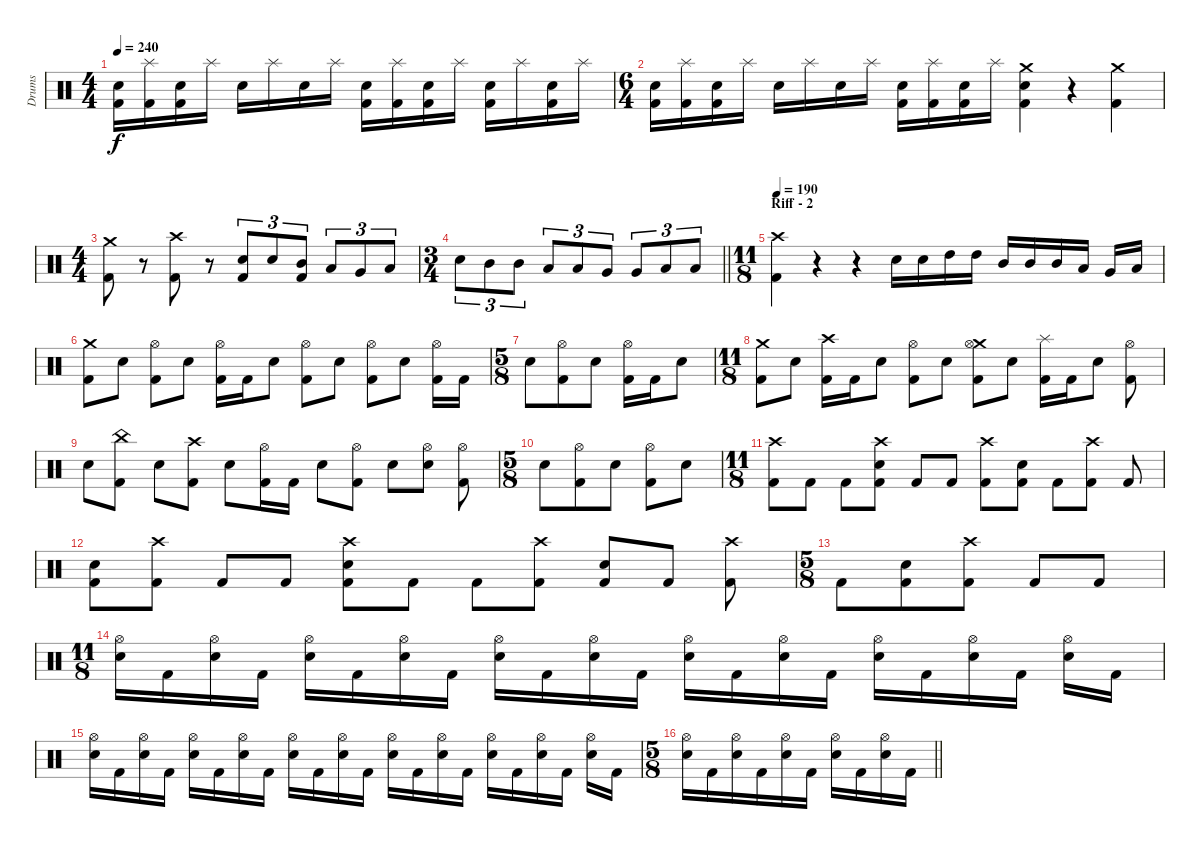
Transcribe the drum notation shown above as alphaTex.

\track ("Drums" "Drums") {instrument percussion}
\staff {score}
\articulation defaults
\ts (4 4)
\tempo 240
\clef neutral
\ks c
("Electric Snare (hit)" "Kick (hit) 2").16{dy f} ("Splash (hit)" "Kick (hit) 2").16 ("Electric Snare (hit)" "Kick (hit) 2").16 "Splash (hit)".16 "Electric Snare (hit)".16 "Splash (hit)".16 "Electric Snare (hit)".16 "Splash (hit)".16 ("Electric Snare (hit)" "Kick (hit) 2").16 ("Splash (hit)" "Kick (hit) 2").16 ("Electric Snare (hit)" "Kick (hit) 2").16 "Splash (hit)".16 ("Electric Snare (hit)" "Kick (hit) 2").16 "Splash (hit)".16 ("Electric Snare (hit)" "Kick (hit) 2").16 "Splash (hit)".16 |
\ts (6 4)
("Electric Snare (hit)" "Kick (hit) 2").16 ("Splash (hit)" "Kick (hit) 2").16 ("Electric Snare (hit)" "Kick (hit) 2").16 "Splash (hit)".16 "Electric Snare (hit)".16 "Splash (hit)".16 "Electric Snare (hit)".16 "Splash (hit)".16 ("Electric Snare (hit)" "Kick (hit) 2").16 ("Splash (hit)" "Kick (hit) 2").16 ("Electric Snare (hit)" "Kick (hit) 2").16 "Splash (hit)".16 ("Crash medium (hit)" "Electric Snare (hit)" "Kick (hit) 2").4 r.4 ("Crash medium (hit)" "Kick (hit) 2").4 |
\ts (4 4)
("Crash medium (hit)" "Kick (hit) 2").8 r.8 ("Crash high (hit)" "Kick (hit) 2").8 r.8 ("Electric Snare (hit)" "Kick (hit) 2").8{tu (3 2)} "Electric Snare (hit)".8{tu (3 2)} ("Mid Tom (hit)" "Kick (hit) 2").8{tu (3 2)} "Low Tom (hit)".8{tu (3 2)} "Very Low Tom (hit)".8{tu (3 2)} "Low Floor Tom (hit)".8{tu (3 2)} |
\ts (3 4)
\barLineRight lightlight "Electric Snare (hit)".8{tu (3 2)} "Mid Tom (hit)".8{tu (3 2)} "Mid Tom (hit)".8{tu (3 2)} "Low Tom (hit)".8{tu (3 2)} "Low Tom (hit)".8{tu (3 2)} "Very Low Tom (hit)".8{tu (3 2)} "Very Low Tom (hit)".8{tu (3 2)} "Low Floor Tom (hit)".8{tu (3 2)} "Low Floor Tom (hit)".8{tu (3 2)}
|
\ts (11 8)
\section ("" "Riff - 2")
\tempo 190
("Crash high (hit)" "Kick (hit) 2").4 r.4 r.4 "Electric Snare (hit)".16 "Electric Snare (hit)".16 "High Tom (hit)".16 "High Tom (hit)".16 "Mid Tom (hit)".16 "Mid Tom (hit)".16 "Mid Tom (hit)".16 "Low Tom (hit)".16 "Very Low Tom (hit)".16 "Low Floor Tom (hit)".16 |
("Crash medium (hit)" "Kick (hit) 2").8 "Electric Snare (hit)".8 ("Hi-Hat (open)" "Kick (hit) 2").8 "Electric Snare (hit)".8 ("Hi-Hat (open)" "Kick (hit) 2").16 "Kick (hit) 2".16 "Electric Snare (hit)".8 ("Hi-Hat (open)" "Kick (hit) 2").8 "Electric Snare (hit)".8 ("Hi-Hat (open)" "Kick (hit) 2").8 "Electric Snare (hit)".8 ("Hi-Hat (open)" "Kick (hit) 2").16 "Kick (hit) 2".16 |
\ts (5 8)
"Electric Snare (hit)".8 ("Hi-Hat (open)" "Kick (hit) 2").8 "Electric Snare (hit)".8 ("Hi-Hat (open)" "Kick (hit) 2").16 "Kick (hit) 2".16 "Electric Snare (hit)".8 |
\ts (11 8)
("Crash medium (hit)" "Kick (hit) 2").8 "Electric Snare (hit)".8 ("Crash high (hit)" "Kick (hit) 2").16 "Kick (hit) 2".16 "Electric Snare (hit)".8 ("Hi-Hat (open)" "Kick (hit) 2").8 "Electric Snare (hit)".8 ("Crash medium (hit)" "Hi-Hat (open)" "Kick (hit) 2").8 "Electric Snare (hit)".8 ("Splash (hit)" "Kick (hit) 2").16 "Kick (hit) 2".16 "Electric Snare (hit)".8 ("Hi-Hat (open)" "Kick (hit) 2").8 |
"Electric Snare (hit)".8 ("China (hit)" "Kick (hit) 2").8 "Electric Snare (hit)".8 ("Crash high (hit)" "Kick (hit) 2").8 "Electric Snare (hit)".8 ("Hi-Hat (open)" "Kick (hit) 2").16 "Kick (hit) 2".16 "Electric Snare (hit)".8 ("Hi-Hat (open)" "Kick (hit) 2").8 "Electric Snare (hit)".8 ("Hi-Hat (open)" "Electric Snare (hit)").8 ("Hi-Hat (open)" "Kick (hit) 2").8 |
\ts (5 8)
"Electric Snare (hit)".8 ("Hi-Hat (open)" "Kick (hit) 2").8 "Electric Snare (hit)".8 ("Hi-Hat (open)" "Kick (hit) 2").8 "Electric Snare (hit)".8 |
\ts (11 8)
("Crash high (hit)" "Kick (hit) 2").8 "Kick (hit) 2".8 "Kick (hit) 2".8 ("Crash high (hit)" "Electric Snare (hit)" "Kick (hit) 2").8 "Kick (hit) 2".8 "Kick (hit) 2".8 ("Crash high (hit)" "Kick (hit) 2").8 ("Electric Snare (hit)" "Kick (hit) 2").8 "Kick (hit) 2".8 ("Crash high (hit)" "Kick (hit) 2").8 "Kick (hit) 2".8 |
("Electric Snare (hit)" "Kick (hit) 2").8 ("Crash high (hit)" "Kick (hit) 2").8 "Kick (hit) 2".8 "Kick (hit) 2".8 ("Crash high (hit)" "Electric Snare (hit)" "Kick (hit) 2").8 "Kick (hit) 2".8 "Kick (hit) 2".8 ("Crash high (hit)" "Kick (hit) 2").8 ("Electric Snare (hit)" "Kick (hit) 2").8 "Kick (hit) 2".8 ("Crash high (hit)" "Kick (hit) 2").8 |
\ts (5 8)
"Kick (hit) 2".8 ("Electric Snare (hit)" "Kick (hit) 2").8 ("Crash high (hit)" "Kick (hit) 2").8 "Kick (hit) 2".8 "Kick (hit) 2".8 |
\ts (11 8)
("Hi-Hat (open)" "Electric Snare (hit)").16 "Kick (hit) 2".16 ("Hi-Hat (open)" "Electric Snare (hit)").16 "Kick (hit) 2".16 ("Hi-Hat (open)" "Electric Snare (hit)").16 "Kick (hit) 2".16 ("Hi-Hat (open)" "Electric Snare (hit)").16 "Kick (hit) 2".16 ("Hi-Hat (open)" "Electric Snare (hit)").16 "Kick (hit) 2".16 ("Hi-Hat (open)" "Electric Snare (hit)").16 "Kick (hit) 2".16 ("Hi-Hat (open)" "Electric Snare (hit)").16 "Kick (hit) 2".16 ("Hi-Hat (open)" "Electric Snare (hit)").16 "Kick (hit) 2".16 ("Hi-Hat (open)" "Electric Snare (hit)").16 "Kick (hit) 2".16 ("Hi-Hat (open)" "Electric Snare (hit)").16 "Kick (hit) 2".16 ("Hi-Hat (open)" "Electric Snare (hit)").16 "Kick (hit) 2".16 |
("Hi-Hat (open)" "Electric Snare (hit)").16 "Kick (hit) 2".16 ("Hi-Hat (open)" "Electric Snare (hit)").16 "Kick (hit) 2".16 ("Hi-Hat (open)" "Electric Snare (hit)").16 "Kick (hit) 2".16 ("Hi-Hat (open)" "Electric Snare (hit)").16 "Kick (hit) 2".16 ("Hi-Hat (open)" "Electric Snare (hit)").16 "Kick (hit) 2".16 ("Hi-Hat (open)" "Electric Snare (hit)").16 "Kick (hit) 2".16 ("Hi-Hat (open)" "Electric Snare (hit)").16 "Kick (hit) 2".16 ("Hi-Hat (open)" "Electric Snare (hit)").16 "Kick (hit) 2".16 ("Hi-Hat (open)" "Electric Snare (hit)").16 "Kick (hit) 2".16 ("Hi-Hat (open)" "Electric Snare (hit)").16 "Kick (hit) 2".16 ("Hi-Hat (open)" "Electric Snare (hit)").16 "Kick (hit) 2".16 |
\ts (5 8)
\barLineRight lightlight
("Hi-Hat (open)" "Electric Snare (hit)").16 "Kick (hit) 2".16 ("Hi-Hat (open)" "Electric Snare (hit)").16 "Kick (hit) 2".16 ("Hi-Hat (open)" "Electric Snare (hit)").16 "Kick (hit) 2".16 ("Hi-Hat (open)" "Electric Snare (hit)").16 "Kick (hit) 2".16 ("Hi-Hat (open)" "Electric Snare (hit)").16 "Kick (hit) 2".16
